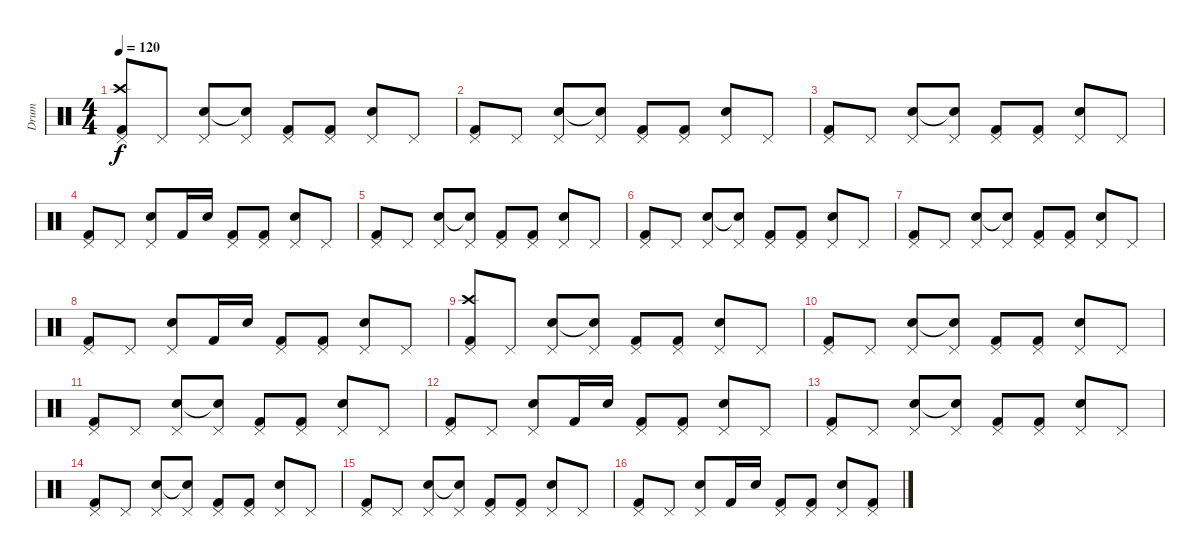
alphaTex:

\track ("Drum" "Drum") {instrument percussion}
\staff {score}
\articulation defaults
\ts (4 4)
\tempo 120
\clef neutral
\ks c
("Pedal Hi-Hat (hit)" "Crash high (hit)" "Kick (hit) 2").8{dy f} "Pedal Hi-Hat (hit)".8 ("Pedal Hi-Hat (hit)" "Snare (hit) 2").8 ("Pedal Hi-Hat (hit)" "Snare (hit)"{t}).8 ("Pedal Hi-Hat (hit)" "Kick (hit) 2").8 ("Pedal Hi-Hat (hit)" "Kick (hit) 2").8 ("Pedal Hi-Hat (hit)" "Snare (hit) 2").8 "Pedal Hi-Hat (hit)".8 |
("Pedal Hi-Hat (hit)" "Kick (hit) 2").8 "Pedal Hi-Hat (hit)".8 ("Pedal Hi-Hat (hit)" "Snare (hit) 2").8 ("Pedal Hi-Hat (hit)" "Snare (hit)"{t}).8 ("Pedal Hi-Hat (hit)" "Kick (hit) 2").8 ("Pedal Hi-Hat (hit)" "Kick (hit) 2").8 ("Pedal Hi-Hat (hit)" "Snare (hit) 2").8 "Pedal Hi-Hat (hit)".8 |
("Pedal Hi-Hat (hit)" "Kick (hit) 2").8 "Pedal Hi-Hat (hit)".8 ("Pedal Hi-Hat (hit)" "Snare (hit) 2").8 ("Pedal Hi-Hat (hit)" "Snare (hit)"{t}).8 ("Pedal Hi-Hat (hit)" "Kick (hit) 2").8 ("Pedal Hi-Hat (hit)" "Kick (hit) 2").8 ("Pedal Hi-Hat (hit)" "Snare (hit) 2").8 "Pedal Hi-Hat (hit)".8 |
("Pedal Hi-Hat (hit)" "Kick (hit) 2").8 "Pedal Hi-Hat (hit)".8 ("Pedal Hi-Hat (hit)" "Snare (hit) 2").8 "Kick (hit) 2".16 "Snare (hit) 2".16 ("Pedal Hi-Hat (hit)" "Kick (hit) 2").8 ("Pedal Hi-Hat (hit)" "Kick (hit) 2").8 ("Pedal Hi-Hat (hit)" "Snare (hit) 2").8 "Pedal Hi-Hat (hit)".8 |
("Pedal Hi-Hat (hit)" "Kick (hit) 2").8 "Pedal Hi-Hat (hit)".8 ("Pedal Hi-Hat (hit)" "Snare (hit) 2").8 ("Pedal Hi-Hat (hit)" "Snare (hit)"{t}).8 ("Pedal Hi-Hat (hit)" "Kick (hit) 2").8 ("Pedal Hi-Hat (hit)" "Kick (hit) 2").8 ("Pedal Hi-Hat (hit)" "Snare (hit) 2").8 "Pedal Hi-Hat (hit)".8 |
("Pedal Hi-Hat (hit)" "Kick (hit) 2").8 "Pedal Hi-Hat (hit)".8 ("Pedal Hi-Hat (hit)" "Snare (hit) 2").8 ("Pedal Hi-Hat (hit)" "Snare (hit)"{t}).8 ("Pedal Hi-Hat (hit)" "Kick (hit) 2").8 ("Pedal Hi-Hat (hit)" "Kick (hit) 2").8 ("Pedal Hi-Hat (hit)" "Snare (hit) 2").8 "Pedal Hi-Hat (hit)".8 |
("Pedal Hi-Hat (hit)" "Kick (hit) 2").8 "Pedal Hi-Hat (hit)".8 ("Pedal Hi-Hat (hit)" "Snare (hit) 2").8 ("Pedal Hi-Hat (hit)" "Snare (hit)"{t}).8 ("Pedal Hi-Hat (hit)" "Kick (hit) 2").8 ("Pedal Hi-Hat (hit)" "Kick (hit) 2").8 ("Pedal Hi-Hat (hit)" "Snare (hit) 2").8 "Pedal Hi-Hat (hit)".8 |
("Pedal Hi-Hat (hit)" "Kick (hit) 2").8 "Pedal Hi-Hat (hit)".8 ("Pedal Hi-Hat (hit)" "Snare (hit) 2").8 "Kick (hit) 2".16 "Snare (hit) 2".16 ("Pedal Hi-Hat (hit)" "Kick (hit) 2").8 ("Pedal Hi-Hat (hit)" "Kick (hit) 2").8 ("Pedal Hi-Hat (hit)" "Snare (hit) 2").8 "Pedal Hi-Hat (hit)".8 |
("Pedal Hi-Hat (hit)" "Crash high (hit)" "Kick (hit) 2").8 "Pedal Hi-Hat (hit)".8 ("Pedal Hi-Hat (hit)" "Snare (hit) 2").8 ("Pedal Hi-Hat (hit)" "Snare (hit)"{t}).8 ("Pedal Hi-Hat (hit)" "Kick (hit) 2").8 ("Pedal Hi-Hat (hit)" "Kick (hit) 2").8 ("Pedal Hi-Hat (hit)" "Snare (hit) 2").8 "Pedal Hi-Hat (hit)".8 |
("Pedal Hi-Hat (hit)" "Kick (hit) 2").8 "Pedal Hi-Hat (hit)".8 ("Pedal Hi-Hat (hit)" "Snare (hit) 2").8 ("Pedal Hi-Hat (hit)" "Snare (hit)"{t}).8 ("Pedal Hi-Hat (hit)" "Kick (hit) 2").8 ("Pedal Hi-Hat (hit)" "Kick (hit) 2").8 ("Pedal Hi-Hat (hit)" "Snare (hit) 2").8 "Pedal Hi-Hat (hit)".8 |
("Pedal Hi-Hat (hit)" "Kick (hit) 2").8 "Pedal Hi-Hat (hit)".8 ("Pedal Hi-Hat (hit)" "Snare (hit) 2").8 ("Pedal Hi-Hat (hit)" "Snare (hit)"{t}).8 ("Pedal Hi-Hat (hit)" "Kick (hit) 2").8 ("Pedal Hi-Hat (hit)" "Kick (hit) 2").8 ("Pedal Hi-Hat (hit)" "Snare (hit) 2").8 "Pedal Hi-Hat (hit)".8 |
("Pedal Hi-Hat (hit)" "Kick (hit) 2").8 "Pedal Hi-Hat (hit)".8 ("Pedal Hi-Hat (hit)" "Snare (hit) 2").8 "Kick (hit) 2".16 "Snare (hit) 2".16 ("Pedal Hi-Hat (hit)" "Kick (hit) 2").8 ("Pedal Hi-Hat (hit)" "Kick (hit) 2").8 ("Pedal Hi-Hat (hit)" "Snare (hit) 2").8 "Pedal Hi-Hat (hit)".8 |
("Pedal Hi-Hat (hit)" "Kick (hit) 2").8 "Pedal Hi-Hat (hit)".8 ("Pedal Hi-Hat (hit)" "Snare (hit) 2").8 ("Pedal Hi-Hat (hit)" "Snare (hit)"{t}).8 ("Pedal Hi-Hat (hit)" "Kick (hit) 2").8 ("Pedal Hi-Hat (hit)" "Kick (hit) 2").8 ("Pedal Hi-Hat (hit)" "Snare (hit) 2").8 "Pedal Hi-Hat (hit)".8 |
("Pedal Hi-Hat (hit)" "Kick (hit) 2").8 "Pedal Hi-Hat (hit)".8 ("Pedal Hi-Hat (hit)" "Snare (hit) 2").8 ("Pedal Hi-Hat (hit)" "Snare (hit)"{t}).8 ("Pedal Hi-Hat (hit)" "Kick (hit) 2").8 ("Pedal Hi-Hat (hit)" "Kick (hit) 2").8 ("Pedal Hi-Hat (hit)" "Snare (hit) 2").8 "Pedal Hi-Hat (hit)".8 |
("Pedal Hi-Hat (hit)" "Kick (hit) 2").8 "Pedal Hi-Hat (hit)".8 ("Pedal Hi-Hat (hit)" "Snare (hit) 2").8 ("Pedal Hi-Hat (hit)" "Snare (hit)"{t}).8 ("Pedal Hi-Hat (hit)" "Kick (hit) 2").8 ("Pedal Hi-Hat (hit)" "Kick (hit) 2").8 ("Pedal Hi-Hat (hit)" "Snare (hit) 2").8 "Pedal Hi-Hat (hit)".8 |
("Pedal Hi-Hat (hit)" "Kick (hit) 2").8 "Pedal Hi-Hat (hit)".8 ("Pedal Hi-Hat (hit)" "Snare (hit) 2").8 "Kick (hit) 2".16 "Snare (hit) 2".16 ("Pedal Hi-Hat (hit)" "Kick (hit) 2").8 ("Pedal Hi-Hat (hit)" "Kick (hit) 2").8 ("Pedal Hi-Hat (hit)" "Snare (hit) 2").8 ("Pedal Hi-Hat (hit)" "Kick (hit) 2").8
